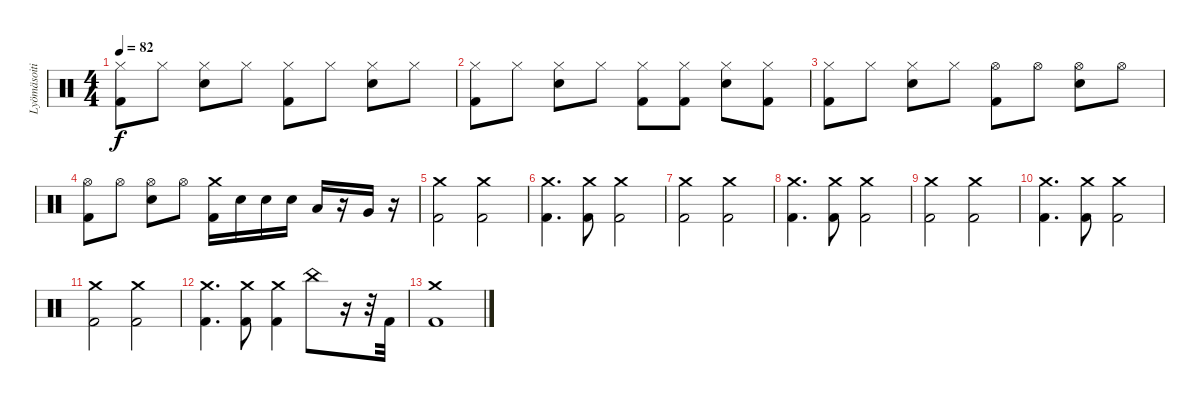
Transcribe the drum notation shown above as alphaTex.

\track ("Lyömäsoitin" "Lyömäsoiti") {instrument percussion}
\staff {score}
\articulation defaults
\ts (4 4)
\tempo 82
\clef neutral
\ks c
("Hi-Hat (closed)" "Kick (hit) 2").8{dy f} "Hi-Hat (closed)".8 ("Hi-Hat (closed)" "Electric Snare (hit)").8 "Hi-Hat (closed)".8 ("Hi-Hat (closed)" "Kick (hit) 2").8 "Hi-Hat (closed)".8 ("Hi-Hat (closed)" "Electric Snare (hit)").8 "Hi-Hat (closed)".8 |
("Hi-Hat (closed)" "Kick (hit) 2").8 "Hi-Hat (closed)".8 ("Hi-Hat (closed)" "Electric Snare (hit)").8 "Hi-Hat (closed)".8 ("Hi-Hat (closed)" "Kick (hit) 2").8 ("Hi-Hat (closed)" "Kick (hit) 2").8 ("Hi-Hat (closed)" "Electric Snare (hit)").8 ("Hi-Hat (closed)" "Kick (hit) 2").8 |
("Hi-Hat (closed)" "Kick (hit) 2").8 "Hi-Hat (closed)".8 ("Hi-Hat (closed)" "Electric Snare (hit)").8 "Hi-Hat (closed)".8 ("Hi-Hat (open)" "Kick (hit) 2").8 "Hi-Hat (open)".8 ("Hi-Hat (open)" "Electric Snare (hit)").8 "Hi-Hat (open)".8 |
("Hi-Hat (open)" "Kick (hit) 2").8 "Hi-Hat (open)".8 ("Hi-Hat (open)" "Electric Snare (hit)").8 "Hi-Hat (open)".8 ("Crash medium (hit)" "Kick (hit) 2").16 "Electric Snare (hit)".16 "Electric Snare (hit)".16 "Electric Snare (hit)".16 "Low Tom (hit)".16 r.16 "Very Low Tom (hit)".16 r.16 |
("Crash medium (hit)" "Kick (hit) 2").2 ("Crash medium (hit)" "Kick (hit) 2").2 |
("Crash medium (hit)" "Kick (hit) 2").4{d} ("Crash medium (hit)" "Kick (hit) 2").8 ("Crash medium (hit)" "Kick (hit) 2").2 |
("Crash medium (hit)" "Kick (hit) 2").2 ("Crash medium (hit)" "Kick (hit) 2").2 |
("Crash medium (hit)" "Kick (hit) 2").4{d} ("Crash medium (hit)" "Kick (hit) 2").8 ("Crash medium (hit)" "Kick (hit) 2").2 |
("Crash medium (hit)" "Kick (hit) 2").2 ("Crash medium (hit)" "Kick (hit) 2").2 |
("Crash medium (hit)" "Kick (hit) 2").4{d} ("Crash medium (hit)" "Kick (hit) 2").8 ("Crash medium (hit)" "Kick (hit) 2").2 |
("Crash medium (hit)" "Kick (hit) 2").2 ("Crash medium (hit)" "Kick (hit) 2").2 |
("Crash medium (hit)" "Kick (hit) 2").4{d} ("Crash medium (hit)" "Kick (hit) 2").8 ("Crash medium (hit)" "Kick (hit) 2").4 "China (hit)".8 r.16 r.32 "Kick (hit) 2".32 |
("Crash medium (hit)" "Kick (hit) 2").1
